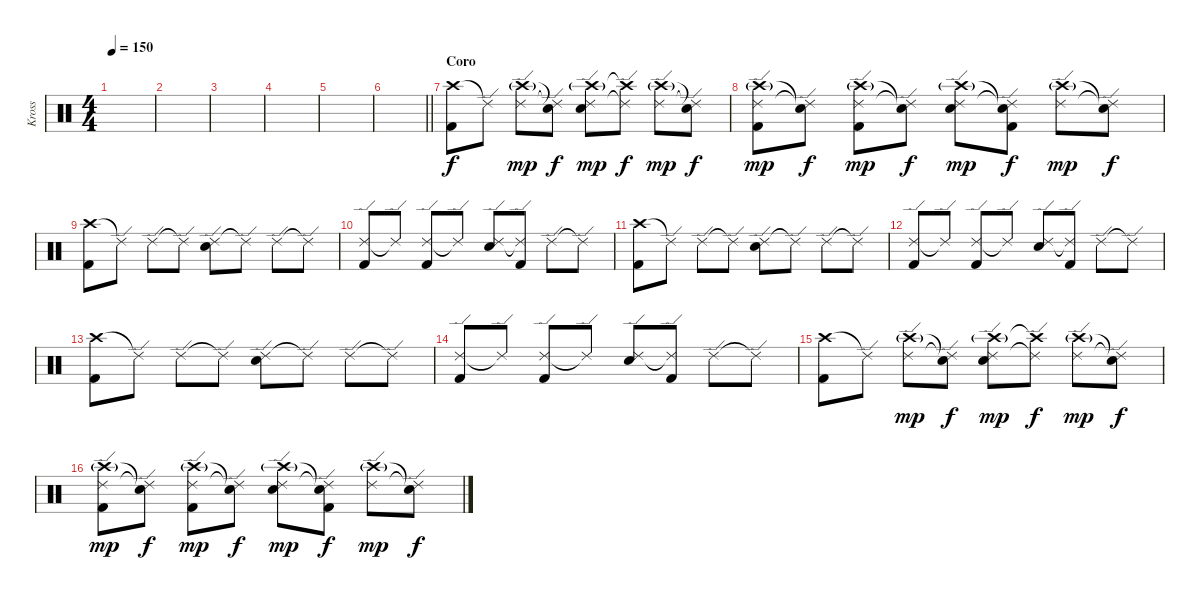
\track ("Kross" "Kross") {instrument percussion}
\staff {score}
\articulation defaults
\ts (4 4)
\tempo 150
\clef neutral
\ks c
|
|
|
|
|
\barLineRight lightlight
|
\section ("" "Coro")
("Crash high (hit)" "Kick (hit) 2").8 "Ride (edge) 2"{t}.8 ("Crash high (hit)"{g} "Ride (edge) 2").8{dy mp} ("Snare (hit)"{t} "Ride (edge) 2"{t}).8{dy f} ("Crash high (hit)"{g} "Ride (edge) 2" "Electric Snare (hit)").8{dy mp} ("Crash high (hit)"{t} "Ride (edge) 2"{t}).8{dy f} ("Crash high (hit)"{g} "Ride (edge) 2").8{dy mp} ("Snare (hit)"{t} "Ride (edge) 2"{t}).8{dy f} |
("Crash high (hit)"{g} "Ride (edge) 2" "Kick (hit) 2").8{dy mp} ("Snare (hit)"{t} "Ride (edge) 2"{t}).8{dy f} ("Crash high (hit)"{g} "Ride (edge) 2" "Kick (hit) 2").8{dy mp} ("Snare (hit)"{t} "Ride (edge) 2"{t}).8{dy f} ("Crash high (hit)"{g} "Ride (edge) 2" "Electric Snare (hit)").8{dy mp} ("Snare (hit)"{t} "Ride (edge) 2"{t} "Kick (hit) 2").8{dy f} ("Crash high (hit)"{g} "Ride (edge) 2").8{dy mp} ("Snare (hit)"{t} "Ride (edge) 2"{t}).8{dy f} |
("Crash high (hit)" "Kick (hit) 2").8 "Ride (edge) 2"{t}.8 "Ride (edge) 2".8 "Ride (edge) 2"{t}.8 ("Ride (edge) 2" "Electric Snare (hit)").8 "Ride (edge) 2"{t}.8 "Ride (edge) 2".8 "Ride (edge) 2"{t}.8 |
("Ride (edge) 2" "Kick (hit) 2").8 "Ride (edge) 2"{t}.8 ("Ride (edge) 2" "Kick (hit) 2").8 "Ride (edge) 2"{t}.8 ("Ride (edge) 2" "Electric Snare (hit)").8 ("Ride (edge) 2"{t} "Kick (hit) 2").8 "Ride (edge) 2".8 "Ride (edge) 2"{t}.8 |
("Crash high (hit)" "Kick (hit) 2").8 "Ride (edge) 2"{t}.8 "Ride (edge) 2".8 "Ride (edge) 2"{t}.8 ("Ride (edge) 2" "Electric Snare (hit)").8 "Ride (edge) 2"{t}.8 "Ride (edge) 2".8 "Ride (edge) 2"{t}.8 |
("Ride (edge) 2" "Kick (hit) 2").8 "Ride (edge) 2"{t}.8 ("Ride (edge) 2" "Kick (hit) 2").8 "Ride (edge) 2"{t}.8 ("Ride (edge) 2" "Electric Snare (hit)").8 ("Ride (edge) 2"{t} "Kick (hit) 2").8 "Ride (edge) 2".8 "Ride (edge) 2"{t}.8 |
("Crash high (hit)" "Kick (hit) 2").8 "Ride (edge) 2"{t}.8 "Ride (edge) 2".8 "Ride (edge) 2"{t}.8 ("Ride (edge) 2" "Electric Snare (hit)").8 "Ride (edge) 2"{t}.8 "Ride (edge) 2".8 "Ride (edge) 2"{t}.8 |
("Ride (edge) 2" "Kick (hit) 2").8 "Ride (edge) 2"{t}.8 ("Ride (edge) 2" "Kick (hit) 2").8 "Ride (edge) 2"{t}.8 ("Ride (edge) 2" "Electric Snare (hit)").8 ("Ride (edge) 2"{t} "Kick (hit) 2").8 "Ride (edge) 2".8 "Ride (edge) 2"{t}.8 |
("Crash high (hit)" "Kick (hit) 2").8 "Ride (edge) 2"{t}.8 ("Crash high (hit)"{g} "Ride (edge) 2").8{dy mp} ("Snare (hit)"{t} "Ride (edge) 2"{t}).8{dy f} ("Crash high (hit)"{g} "Ride (edge) 2" "Electric Snare (hit)").8{dy mp} ("Crash high (hit)"{t} "Ride (edge) 2"{t}).8{dy f} ("Crash high (hit)"{g} "Ride (edge) 2").8{dy mp} ("Snare (hit)"{t} "Ride (edge) 2"{t}).8{dy f} |
("Crash high (hit)"{g} "Ride (edge) 2" "Kick (hit) 2").8{dy mp} ("Snare (hit)"{t} "Ride (edge) 2"{t}).8{dy f} ("Crash high (hit)"{g} "Ride (edge) 2" "Kick (hit) 2").8{dy mp} ("Snare (hit)"{t} "Ride (edge) 2"{t}).8{dy f} ("Crash high (hit)"{g} "Ride (edge) 2" "Electric Snare (hit)").8{dy mp} ("Snare (hit)"{t} "Ride (edge) 2"{t} "Kick (hit) 2").8{dy f} ("Crash high (hit)"{g} "Ride (edge) 2").8{dy mp} ("Snare (hit)"{t} "Ride (edge) 2"{t}).8{dy f}
